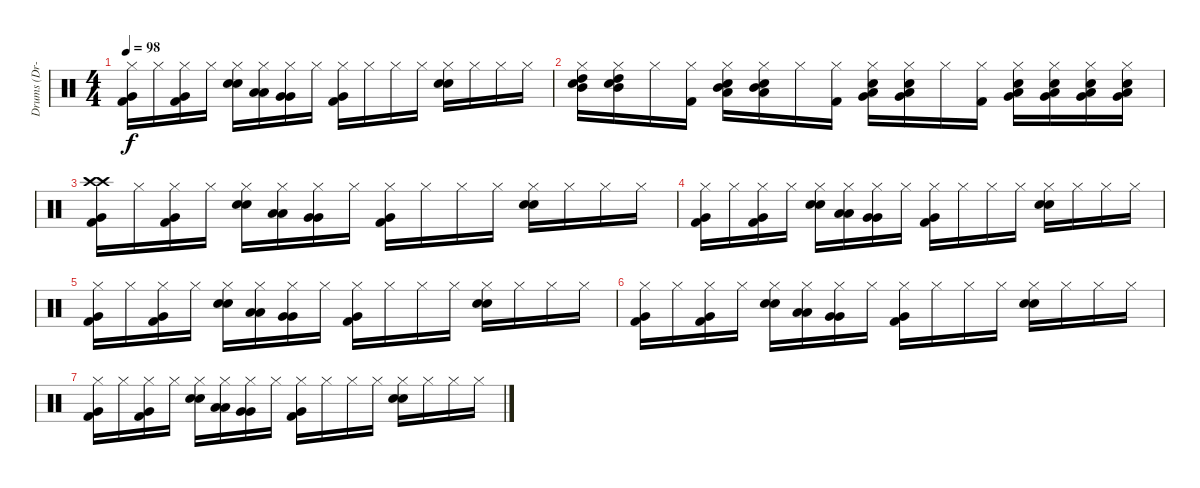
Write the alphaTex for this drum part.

\track ("Drums (Dr-0)" "Drums (Dr-") {instrument percussion}
\staff {score}
\articulation defaults
\ts (4 4)
\tempo 98
\clef neutral
\ks c
("Hi-Hat (closed)" "Very Low Tom (hit)" "Kick (hit) 2").16{dy f} "Hi-Hat (closed)".16 ("Hi-Hat (closed)" "Very Low Tom (hit)" "Kick (hit) 2").16 "Hi-Hat (closed)".16 ("Hi-Hat (closed)" "Electric Snare (hit)" "Snare (hit) 2").16 ("Hi-Hat (closed)" "Low Tom (hit)" "Low Tom (hit)").16 ("Hi-Hat (closed)" "Very Low Tom (hit)" "Very Low Tom (hit)").16 "Hi-Hat (closed)".16 ("Hi-Hat (closed)" "Very Low Tom (hit)" "Kick (hit) 2").16 "Hi-Hat (closed)".16 "Hi-Hat (closed)".16 "Hi-Hat (closed)".16 ("Hi-Hat (closed)" "Electric Snare (hit)" "Snare (hit) 2").16 "Hi-Hat (closed)".16 "Hi-Hat (closed)".16 "Hi-Hat (closed)".16 |
("Hi-Hat (closed)" "High Tom (hit)" "Mid Tom (hit)" "Electric Snare (hit)").16 ("Hi-Hat (closed)" "High Tom (hit)" "Mid Tom (hit)" "Electric Snare (hit)").16 "Hi-Hat (closed)".16 ("Hi-Hat (closed)" "Kick (hit) 2").16 ("Hi-Hat (closed)" "Mid Tom (hit)" "Low Tom (hit)" "Electric Snare (hit)").16 ("Hi-Hat (closed)" "Mid Tom (hit)" "Low Tom (hit)" "Electric Snare (hit)").16 "Hi-Hat (closed)".16 ("Hi-Hat (closed)" "Kick (hit) 2").16 ("Hi-Hat (closed)" "Low Tom (hit)" "Very Low Tom (hit)" "Electric Snare (hit)").16 ("Hi-Hat (closed)" "Low Tom (hit)" "Very Low Tom (hit)" "Electric Snare (hit)").16 "Hi-Hat (closed)".16 ("Hi-Hat (closed)" "Kick (hit) 2").16 ("Hi-Hat (closed)" "Very Low Tom (hit)" "Low Floor Tom (hit)" "Electric Snare (hit)").16 ("Hi-Hat (closed)" "Very Low Tom (hit)" "Low Floor Tom (hit)" "Electric Snare (hit)").16 ("Hi-Hat (closed)" "Very Low Tom (hit)" "Low Floor Tom (hit)" "Electric Snare (hit)").16 ("Hi-Hat (closed)" "Very Low Tom (hit)" "Low Floor Tom (hit)" "Electric Snare (hit)").16 |
("Crash high (hit)" "Crash high (hit)" "Very Low Tom (hit)" "Kick (hit) 2").16 "Hi-Hat (closed)".16 ("Hi-Hat (closed)" "Very Low Tom (hit)" "Kick (hit) 2").16 "Hi-Hat (closed)".16 ("Hi-Hat (closed)" "Electric Snare (hit)" "Snare (hit) 2").16 ("Hi-Hat (closed)" "Low Tom (hit)" "Low Tom (hit)").16 ("Hi-Hat (closed)" "Very Low Tom (hit)" "Very Low Tom (hit)").16 "Hi-Hat (closed)".16 ("Hi-Hat (closed)" "Very Low Tom (hit)" "Kick (hit) 2").16 "Hi-Hat (closed)".16 "Hi-Hat (closed)".16 "Hi-Hat (closed)".16 ("Hi-Hat (closed)" "Electric Snare (hit)" "Snare (hit) 2").16 "Hi-Hat (closed)".16 "Hi-Hat (closed)".16 "Hi-Hat (closed)".16 |
("Hi-Hat (closed)" "Very Low Tom (hit)" "Kick (hit) 2").16{volume 5} "Hi-Hat (closed)".16 ("Hi-Hat (closed)" "Very Low Tom (hit)" "Kick (hit) 2").16 "Hi-Hat (closed)".16 ("Hi-Hat (closed)" "Electric Snare (hit)" "Snare (hit) 2").16 ("Hi-Hat (closed)" "Low Tom (hit)" "Low Tom (hit)").16 ("Hi-Hat (closed)" "Very Low Tom (hit)" "Very Low Tom (hit)").16 "Hi-Hat (closed)".16 ("Hi-Hat (closed)" "Very Low Tom (hit)" "Kick (hit) 2").16 "Hi-Hat (closed)".16 "Hi-Hat (closed)".16 "Hi-Hat (closed)".16 ("Hi-Hat (closed)" "Electric Snare (hit)" "Snare (hit) 2").16 "Hi-Hat (closed)".16 "Hi-Hat (closed)".16 "Hi-Hat (closed)".16 |
("Hi-Hat (closed)" "Very Low Tom (hit)" "Kick (hit) 2").16 "Hi-Hat (closed)".16 ("Hi-Hat (closed)" "Very Low Tom (hit)" "Kick (hit) 2").16 "Hi-Hat (closed)".16 ("Hi-Hat (closed)" "Electric Snare (hit)" "Snare (hit) 2").16 ("Hi-Hat (closed)" "Low Tom (hit)" "Low Tom (hit)").16 ("Hi-Hat (closed)" "Very Low Tom (hit)" "Very Low Tom (hit)").16 "Hi-Hat (closed)".16 ("Hi-Hat (closed)" "Very Low Tom (hit)" "Kick (hit) 2").16 "Hi-Hat (closed)".16 "Hi-Hat (closed)".16 "Hi-Hat (closed)".16 ("Hi-Hat (closed)" "Electric Snare (hit)" "Snare (hit) 2").16 "Hi-Hat (closed)".16 "Hi-Hat (closed)".16 "Hi-Hat (closed)".16 |
("Hi-Hat (closed)" "Very Low Tom (hit)" "Kick (hit) 2").16{volume 0} "Hi-Hat (closed)".16 ("Hi-Hat (closed)" "Very Low Tom (hit)" "Kick (hit) 2").16 "Hi-Hat (closed)".16 ("Hi-Hat (closed)" "Electric Snare (hit)" "Snare (hit) 2").16 ("Hi-Hat (closed)" "Low Tom (hit)" "Low Tom (hit)").16 ("Hi-Hat (closed)" "Very Low Tom (hit)" "Very Low Tom (hit)").16 "Hi-Hat (closed)".16 ("Hi-Hat (closed)" "Very Low Tom (hit)" "Kick (hit) 2").16 "Hi-Hat (closed)".16 "Hi-Hat (closed)".16 "Hi-Hat (closed)".16 ("Hi-Hat (closed)" "Electric Snare (hit)" "Snare (hit) 2").16 "Hi-Hat (closed)".16 "Hi-Hat (closed)".16 "Hi-Hat (closed)".16 |
("Hi-Hat (closed)" "Very Low Tom (hit)" "Kick (hit) 2").16 "Hi-Hat (closed)".16 ("Hi-Hat (closed)" "Very Low Tom (hit)" "Kick (hit) 2").16 "Hi-Hat (closed)".16 ("Hi-Hat (closed)" "Electric Snare (hit)" "Snare (hit) 2").16 ("Hi-Hat (closed)" "Low Tom (hit)" "Low Tom (hit)").16 ("Hi-Hat (closed)" "Very Low Tom (hit)" "Very Low Tom (hit)").16 "Hi-Hat (closed)".16 ("Hi-Hat (closed)" "Very Low Tom (hit)" "Kick (hit) 2").16 "Hi-Hat (closed)".16 "Hi-Hat (closed)".16 "Hi-Hat (closed)".16 ("Hi-Hat (closed)" "Electric Snare (hit)" "Snare (hit) 2").16 "Hi-Hat (closed)".16 "Hi-Hat (closed)".16 "Hi-Hat (closed)".16
